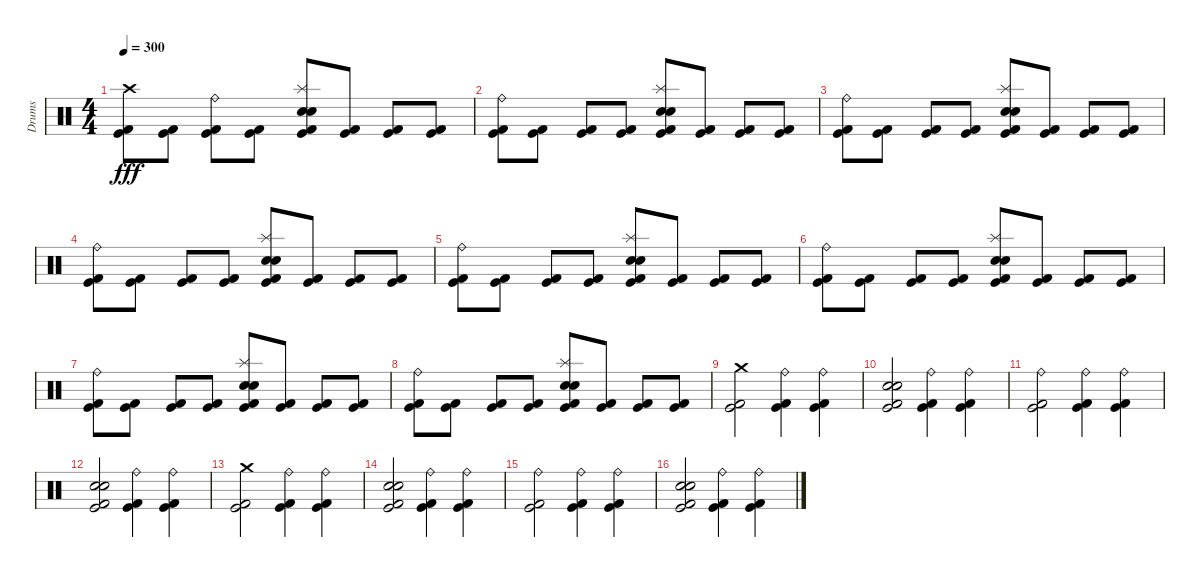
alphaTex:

\track ("Drums" "Drums") {instrument percussion}
\staff {score}
\articulation defaults
\ts (4 4)
\tempo 300
\clef neutral
\ks c
("Crash high (hit)" "Kick (hit) 2" "Kick (hit)").8{dy fff} ("Kick (hit) 2" "Kick (hit)").8 ("Kick (hit) 2" "Ride (bell)" "Kick (hit)").8 ("Kick (hit) 2" "Kick (hit)").8 ("Kick (hit) 2" "Splash (hit)" "Snare (hit) 2" "Electric Snare (hit)" "Kick (hit)").8 ("Kick (hit) 2" "Kick (hit)").8 ("Kick (hit) 2" "Kick (hit)").8 ("Kick (hit) 2" "Kick (hit)").8 |
("Kick (hit) 2" "Ride (bell)" "Kick (hit)").8 ("Kick (hit) 2" "Kick (hit)").8 ("Kick (hit) 2" "Kick (hit)").8 ("Kick (hit) 2" "Kick (hit)").8 ("Kick (hit) 2" "Splash (hit)" "Snare (hit) 2" "Electric Snare (hit)" "Kick (hit)").8 ("Kick (hit) 2" "Kick (hit)").8 ("Kick (hit) 2" "Kick (hit)").8 ("Kick (hit) 2" "Kick (hit)").8 |
("Kick (hit) 2" "Ride (bell)" "Kick (hit)").8 ("Kick (hit) 2" "Kick (hit)").8 ("Kick (hit) 2" "Kick (hit)").8 ("Kick (hit) 2" "Kick (hit)").8 ("Kick (hit) 2" "Splash (hit)" "Snare (hit) 2" "Electric Snare (hit)" "Kick (hit)").8 ("Kick (hit) 2" "Kick (hit)").8 ("Kick (hit) 2" "Kick (hit)").8 ("Kick (hit) 2" "Kick (hit)").8 |
("Kick (hit) 2" "Ride (bell)" "Kick (hit)").8 ("Kick (hit) 2" "Kick (hit)").8 ("Kick (hit) 2" "Kick (hit)").8 ("Kick (hit) 2" "Kick (hit)").8 ("Kick (hit) 2" "Splash (hit)" "Snare (hit) 2" "Electric Snare (hit)" "Kick (hit)").8 ("Kick (hit) 2" "Kick (hit)").8 ("Kick (hit) 2" "Kick (hit)").8 ("Kick (hit) 2" "Kick (hit)").8 |
("Kick (hit) 2" "Ride (bell)" "Kick (hit)").8 ("Kick (hit) 2" "Kick (hit)").8 ("Kick (hit) 2" "Kick (hit)").8 ("Kick (hit) 2" "Kick (hit)").8 ("Kick (hit) 2" "Splash (hit)" "Snare (hit) 2" "Electric Snare (hit)" "Kick (hit)").8 ("Kick (hit) 2" "Kick (hit)").8 ("Kick (hit) 2" "Kick (hit)").8 ("Kick (hit) 2" "Kick (hit)").8 |
("Kick (hit) 2" "Ride (bell)" "Kick (hit)").8 ("Kick (hit) 2" "Kick (hit)").8 ("Kick (hit) 2" "Kick (hit)").8 ("Kick (hit) 2" "Kick (hit)").8 ("Kick (hit) 2" "Splash (hit)" "Snare (hit) 2" "Electric Snare (hit)" "Kick (hit)").8 ("Kick (hit) 2" "Kick (hit)").8 ("Kick (hit) 2" "Kick (hit)").8 ("Kick (hit) 2" "Kick (hit)").8 |
("Kick (hit) 2" "Ride (bell)" "Kick (hit)").8 ("Kick (hit) 2" "Kick (hit)").8 ("Kick (hit) 2" "Kick (hit)").8 ("Kick (hit) 2" "Kick (hit)").8 ("Kick (hit) 2" "Splash (hit)" "Snare (hit) 2" "Electric Snare (hit)" "Kick (hit)").8 ("Kick (hit) 2" "Kick (hit)").8 ("Kick (hit) 2" "Kick (hit)").8 ("Kick (hit) 2" "Kick (hit)").8 |
("Kick (hit) 2" "Ride (bell)" "Kick (hit)").8 ("Kick (hit) 2" "Kick (hit)").8 ("Kick (hit) 2" "Kick (hit)").8 ("Kick (hit) 2" "Kick (hit)").8 ("Kick (hit) 2" "Splash (hit)" "Snare (hit) 2" "Electric Snare (hit)" "Kick (hit)").8 ("Kick (hit) 2" "Kick (hit)").8 ("Kick (hit) 2" "Kick (hit)").8 ("Kick (hit) 2" "Kick (hit)").8 |
("Kick (hit) 2" "Crash medium (hit)" "Kick (hit)").2 ("Kick (hit) 2" "Kick (hit)" "Ride (bell)").4 ("Kick (hit) 2" "Ride (bell)" "Kick (hit)").4 |
("Kick (hit) 2" "Kick (hit)" "Snare (hit) 2" "Electric Snare (hit)").2 ("Kick (hit) 2" "Ride (bell)" "Kick (hit)").4 ("Kick (hit) 2" "Kick (hit)" "Ride (bell)").4 |
("Kick (hit) 2" "Ride (bell)" "Kick (hit)").2 ("Kick (hit) 2" "Kick (hit)" "Ride (bell)").4 ("Kick (hit) 2" "Ride (bell)" "Kick (hit)").4 |
("Kick (hit) 2" "Kick (hit)" "Snare (hit) 2" "Electric Snare (hit)").2 ("Kick (hit) 2" "Kick (hit)" "Ride (bell)").4 ("Kick (hit) 2" "Kick (hit)" "Ride (bell)").4 |
("Kick (hit) 2" "Crash medium (hit)" "Kick (hit)").2 ("Kick (hit) 2" "Kick (hit)" "Ride (bell)").4 ("Kick (hit) 2" "Ride (bell)" "Kick (hit)").4 |
("Kick (hit) 2" "Kick (hit)" "Snare (hit) 2" "Electric Snare (hit)").2 ("Kick (hit) 2" "Ride (bell)" "Kick (hit)").4 ("Kick (hit) 2" "Kick (hit)" "Ride (bell)").4 |
("Kick (hit) 2" "Kick (hit)" "Ride (bell)").2 ("Kick (hit) 2" "Ride (bell)" "Kick (hit)").4 ("Kick (hit) 2" "Kick (hit)" "Ride (bell)").4 |
("Kick (hit) 2" "Electric Snare (hit)" "Snare (hit) 2" "Kick (hit)").2 ("Kick (hit) 2" "Kick (hit)" "Ride (bell)").4 ("Kick (hit) 2" "Kick (hit)" "Ride (bell)").4
